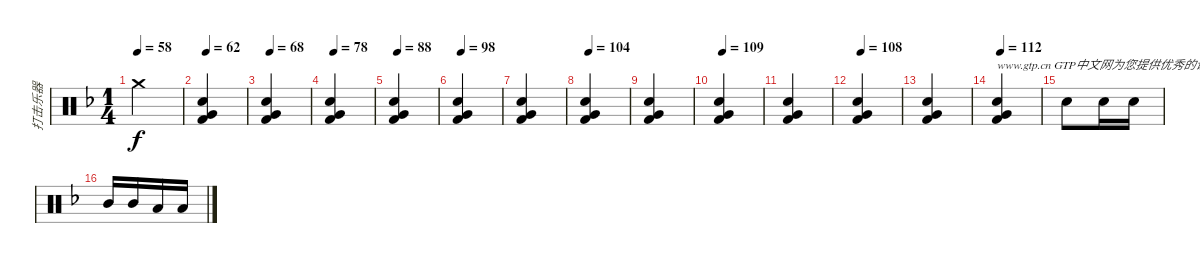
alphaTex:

\track ("打击乐器" "打击乐器") {instrument percussion}
\staff {score}
\articulation defaults
\ts (1 4)
\tempo 58
\clef neutral
\ks f "Crash medium (hit)".4{dy f}
|
\tempo 62
("Very Low Tom (hit)" "Snare (hit) 2" "Kick (hit) 2").4 |
\tempo 68
("Very Low Tom (hit)" "Snare (hit) 2" "Kick (hit) 2").4 |
\tempo 78
("Very Low Tom (hit)" "Snare (hit) 2" "Kick (hit) 2").4 |
\tempo 88
("Very Low Tom (hit)" "Snare (hit) 2" "Kick (hit) 2").4 |
\tempo 98
("Very Low Tom (hit)" "Snare (hit) 2" "Kick (hit) 2").4 |
("Very Low Tom (hit)" "Snare (hit) 2" "Kick (hit) 2").4 |
\tempo 104
("Very Low Tom (hit)" "Snare (hit) 2" "Kick (hit) 2").4 |
("Very Low Tom (hit)" "Snare (hit) 2" "Kick (hit) 2").4 |
\tempo 109
("Very Low Tom (hit)" "Snare (hit) 2" "Kick (hit) 2").4 |
("Very Low Tom (hit)" "Snare (hit) 2" "Kick (hit) 2").4 |
\tempo 108
("Very Low Tom (hit)" "Snare (hit) 2" "Kick (hit) 2").4 |
("Very Low Tom (hit)" "Snare (hit) 2" "Kick (hit) 2").4 |
\tempo 112
("Very Low Tom (hit)" "Snare (hit) 2" "Kick (hit) 2").4{txt "www.gtp.cn GTP中文网为您提供优秀的谱子"} |
"Snare (hit) 2".8 "Snare (hit) 2".16 "Snare (hit) 2".16 |
"Mid Tom (hit)".16 "Mid Tom (hit)".16 "Low Tom (hit)".16 "Low Tom (hit)".16
